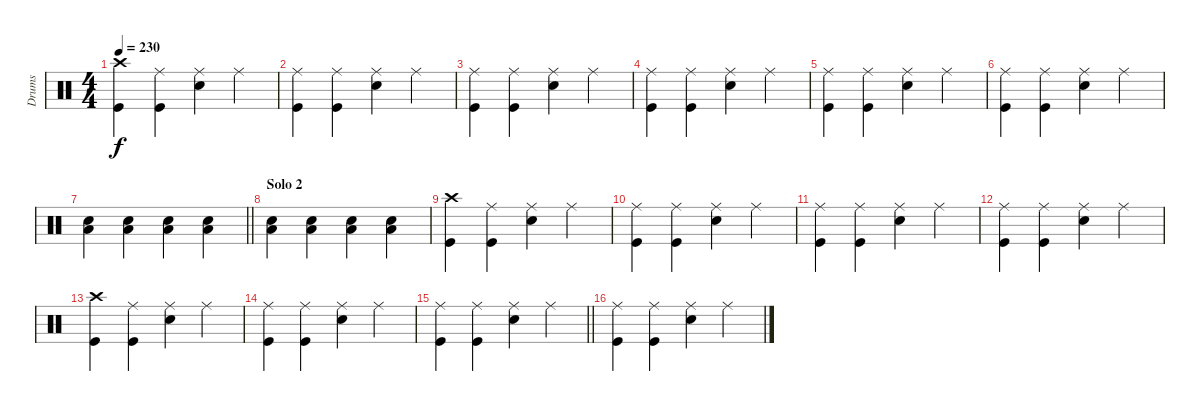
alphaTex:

\track ("Drums" "Drums") {instrument percussion}
\staff {score}
\articulation defaults
\ts (4 4)
\tempo 230
\clef neutral
\ks c
("Crash high (hit)" "Kick (hit)").4{dy f} ("Ride (middle)" "Kick (hit)").4 ("Ride (middle)" "Snare (hit) 2").4 "Ride (middle)".4 |
("Ride (middle)" "Kick (hit)").4 ("Ride (middle)" "Kick (hit)").4 ("Ride (middle)" "Snare (hit) 2").4 "Ride (middle)".4 |
("Ride (middle)" "Kick (hit)").4 ("Ride (middle)" "Kick (hit)").4 ("Ride (middle)" "Snare (hit) 2").4 "Ride (middle)".4 |
("Ride (middle)" "Kick (hit)").4 ("Ride (middle)" "Kick (hit)").4 ("Ride (middle)" "Snare (hit) 2").4 "Ride (middle)".4 |
("Ride (middle)" "Kick (hit)").4 ("Ride (middle)" "Kick (hit)").4 ("Ride (middle)" "Snare (hit) 2").4 "Ride (middle)".4 |
("Ride (middle)" "Kick (hit)").4 ("Ride (middle)" "Kick (hit)").4 ("Ride (middle)" "Snare (hit) 2").4 "Ride (middle)".4 |
\barLineRight lightlight
("Low Tom (hit)" "Snare (hit) 2").4 ("Low Tom (hit)" "Snare (hit) 2").4 ("Low Tom (hit)" "Snare (hit) 2").4 ("Low Tom (hit)" "Snare (hit) 2").4 |
\section ("" "Solo 2")
("Low Tom (hit)" "Snare (hit) 2").4 ("Low Tom (hit)" "Snare (hit) 2").4 ("Low Tom (hit)" "Snare (hit) 2").4 ("Low Tom (hit)" "Snare (hit) 2").4 |
("Crash high (hit)" "Kick (hit)").4 ("Ride (middle)" "Kick (hit)").4 ("Ride (middle)" "Snare (hit) 2").4 "Ride (middle)".4 |
("Ride (middle)" "Kick (hit)").4 ("Ride (middle)" "Kick (hit)").4 ("Ride (middle)" "Snare (hit) 2").4 "Ride (middle)".4 |
("Ride (middle)" "Kick (hit)").4 ("Ride (middle)" "Kick (hit)").4 ("Ride (middle)" "Snare (hit) 2").4 "Ride (middle)".4 |
("Ride (middle)" "Kick (hit)").4 ("Ride (middle)" "Kick (hit)").4 ("Ride (middle)" "Snare (hit) 2").4 "Ride (middle)".4 |
("Crash high (hit)" "Kick (hit)").4 ("Ride (middle)" "Kick (hit)").4 ("Ride (middle)" "Snare (hit) 2").4 "Ride (middle)".4 |
("Ride (middle)" "Kick (hit)").4 ("Ride (middle)" "Kick (hit)").4 ("Ride (middle)" "Snare (hit) 2").4 "Ride (middle)".4 |
\barLineRight lightlight
("Ride (middle)" "Kick (hit)").4 ("Ride (middle)" "Kick (hit)").4 ("Ride (middle)" "Snare (hit) 2").4 "Ride (middle)".4 |
("Ride (middle)" "Kick (hit)").4 ("Ride (middle)" "Kick (hit)").4 ("Ride (middle)" "Snare (hit) 2").4 "Ride (middle)".4
